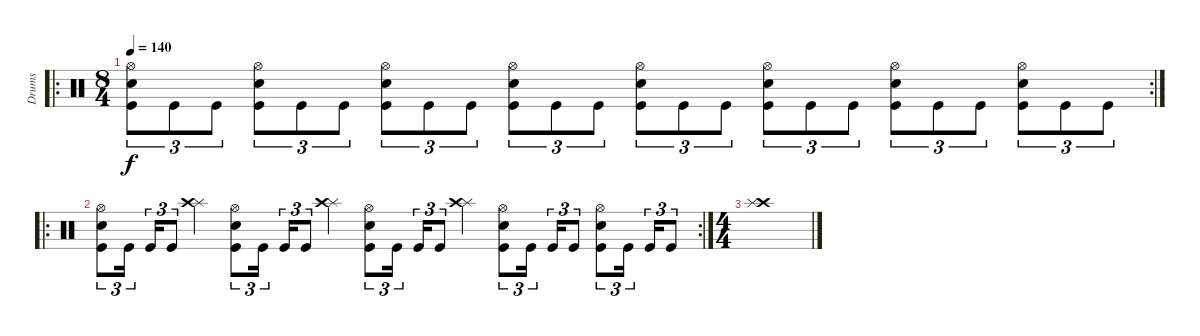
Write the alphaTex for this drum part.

\track ("Drums" "Drums") {instrument percussion}
\staff {score}
\articulation defaults
\ro
\rc 2
\ts (8 4)
\tempo 140
\clef neutral
\ks c
("Hi-Hat (open)" "Snare (hit) 2" "Kick (hit)").8{tu (3 2) dy f} "Kick (hit)".8{tu (3 2)} "Kick (hit)".8{tu (3 2)} ("Hi-Hat (open)" "Snare (hit) 2" "Kick (hit)").8{tu (3 2)} "Kick (hit)".8{tu (3 2)} "Kick (hit)".8{tu (3 2)} ("Hi-Hat (open)" "Snare (hit) 2" "Kick (hit)").8{tu (3 2)} "Kick (hit)".8{tu (3 2)} "Kick (hit)".8{tu (3 2)} ("Hi-Hat (open)" "Snare (hit) 2" "Kick (hit)").8{tu (3 2)} "Kick (hit)".8{tu (3 2)} "Kick (hit)".8{tu (3 2)} ("Hi-Hat (open)" "Snare (hit) 2" "Kick (hit)").8{tu (3 2)} "Kick (hit)".8{tu (3 2)} "Kick (hit)".8{tu (3 2)} ("Hi-Hat (open)" "Snare (hit) 2" "Kick (hit)").8{tu (3 2)} "Kick (hit)".8{tu (3 2)} "Kick (hit)".8{tu (3 2)} ("Hi-Hat (open)" "Snare (hit) 2" "Kick (hit)").8{tu (3 2)} "Kick (hit)".8{tu (3 2)} "Kick (hit)".8{tu (3 2)} ("Hi-Hat (open)" "Snare (hit) 2" "Kick (hit)").8{tu (3 2)} "Kick (hit)".8{tu (3 2)} "Kick (hit)".8{tu (3 2)} |
\ro
\rc 2
("Hi-Hat (open)" "Snare (hit) 2" "Kick (hit)").8{tu (3 2)} "Kick (hit)".16{tu (3 2)} "Kick (hit)".16{tu (3 2)} "Kick (hit)".8{tu (3 2)} ("Splash (hit)" "Crash high (hit)").4 ("Hi-Hat (open)" "Snare (hit) 2" "Kick (hit)").8{tu (3 2)} "Kick (hit)".16{tu (3 2)} "Kick (hit)".16{tu (3 2)} "Kick (hit)".8{tu (3 2)} ("Splash (hit)" "Crash high (hit)").4 ("Hi-Hat (open)" "Snare (hit) 2" "Kick (hit)").8{tu (3 2)} "Kick (hit)".16{tu (3 2)} "Kick (hit)".16{tu (3 2)} "Kick (hit)".8{tu (3 2)} ("Splash (hit)" "Crash high (hit)").4 ("Hi-Hat (open)" "Snare (hit) 2" "Kick (hit)").8{tu (3 2)} "Kick (hit)".16{tu (3 2)} "Kick (hit)".16{tu (3 2)} "Kick (hit)".8{tu (3 2)} ("Hi-Hat (open)" "Snare (hit) 2" "Kick (hit)").8{tu (3 2)} "Kick (hit)".16{tu (3 2)} "Kick (hit)".16{tu (3 2)} "Kick (hit)".8{tu (3 2)} |
\ts (4 4)
("Crash high (hit)" "Splash (hit)").1
